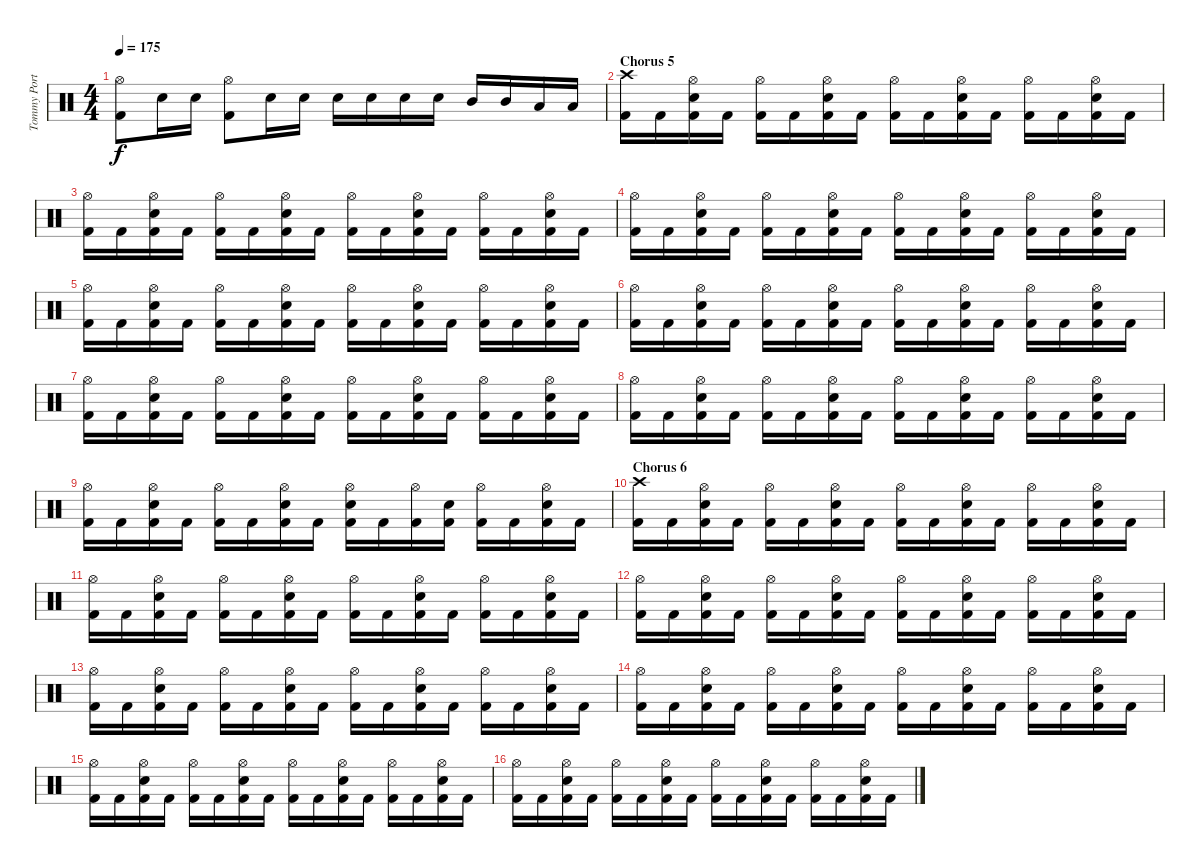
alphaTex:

\track ("Tommy Portimo" "Tommy Port") {instrument percussion}
\staff {score}
\articulation defaults
\ts (4 4)
\tempo 175
\clef neutral
\ks c
("Hi-Hat (open)" "Kick (hit) 2").8{dy f} "Snare (hit) 2".16 "Snare (hit) 2".16 ("Hi-Hat (open)" "Kick (hit) 2").8 "Snare (hit) 2".16 "Snare (hit) 2".16 "Snare (hit) 2".16 "Snare (hit) 2".16 "Snare (hit) 2".16 "Snare (hit) 2".16 "Mid Tom (hit)".16 "Mid Tom (hit)".16 "Low Tom (hit)".16 "Low Tom (hit)".16 |
\section ("" "Chorus 5")
("Crash high (hit)" "Kick (hit) 2").16 "Kick (hit) 2".16 ("Hi-Hat (open)" "Snare (hit) 2" "Kick (hit) 2").16 "Kick (hit) 2".16 ("Hi-Hat (open)" "Kick (hit) 2").16 "Kick (hit) 2".16 ("Hi-Hat (open)" "Snare (hit) 2" "Kick (hit) 2").16 "Kick (hit) 2".16 ("Hi-Hat (open)" "Kick (hit) 2").16 "Kick (hit) 2".16 ("Hi-Hat (open)" "Snare (hit) 2" "Kick (hit) 2").16 "Kick (hit) 2".16 ("Hi-Hat (open)" "Kick (hit) 2").16 "Kick (hit) 2".16 ("Hi-Hat (open)" "Snare (hit) 2" "Kick (hit) 2").16 "Kick (hit) 2".16 |
("Hi-Hat (open)" "Kick (hit) 2").16 "Kick (hit) 2".16 ("Hi-Hat (open)" "Snare (hit) 2" "Kick (hit) 2").16 "Kick (hit) 2".16 ("Hi-Hat (open)" "Kick (hit) 2").16 "Kick (hit) 2".16 ("Hi-Hat (open)" "Snare (hit) 2" "Kick (hit) 2").16 "Kick (hit) 2".16 ("Hi-Hat (open)" "Kick (hit) 2").16 "Kick (hit) 2".16 ("Hi-Hat (open)" "Snare (hit) 2" "Kick (hit) 2").16 "Kick (hit) 2".16 ("Hi-Hat (open)" "Kick (hit) 2").16 "Kick (hit) 2".16 ("Hi-Hat (open)" "Snare (hit) 2" "Kick (hit) 2").16 "Kick (hit) 2".16 |
("Hi-Hat (open)" "Kick (hit) 2").16 "Kick (hit) 2".16 ("Hi-Hat (open)" "Snare (hit) 2" "Kick (hit) 2").16 "Kick (hit) 2".16 ("Hi-Hat (open)" "Kick (hit) 2").16 "Kick (hit) 2".16 ("Hi-Hat (open)" "Snare (hit) 2" "Kick (hit) 2").16 "Kick (hit) 2".16 ("Hi-Hat (open)" "Kick (hit) 2").16 "Kick (hit) 2".16 ("Hi-Hat (open)" "Snare (hit) 2" "Kick (hit) 2").16 "Kick (hit) 2".16 ("Hi-Hat (open)" "Kick (hit) 2").16 "Kick (hit) 2".16 ("Hi-Hat (open)" "Snare (hit) 2" "Kick (hit) 2").16 "Kick (hit) 2".16 |
("Hi-Hat (open)" "Kick (hit) 2").16 "Kick (hit) 2".16 ("Hi-Hat (open)" "Snare (hit) 2" "Kick (hit) 2").16 "Kick (hit) 2".16 ("Hi-Hat (open)" "Kick (hit) 2").16 "Kick (hit) 2".16 ("Hi-Hat (open)" "Snare (hit) 2" "Kick (hit) 2").16 "Kick (hit) 2".16 ("Hi-Hat (open)" "Kick (hit) 2").16 "Kick (hit) 2".16 ("Hi-Hat (open)" "Snare (hit) 2" "Kick (hit) 2").16 "Kick (hit) 2".16 ("Hi-Hat (open)" "Kick (hit) 2").16 "Kick (hit) 2".16 ("Hi-Hat (open)" "Snare (hit) 2" "Kick (hit) 2").16 "Kick (hit) 2".16 |
("Hi-Hat (open)" "Kick (hit) 2").16 "Kick (hit) 2".16 ("Hi-Hat (open)" "Snare (hit) 2" "Kick (hit) 2").16 "Kick (hit) 2".16 ("Hi-Hat (open)" "Kick (hit) 2").16 "Kick (hit) 2".16 ("Hi-Hat (open)" "Snare (hit) 2" "Kick (hit) 2").16 "Kick (hit) 2".16 ("Hi-Hat (open)" "Kick (hit) 2").16 "Kick (hit) 2".16 ("Hi-Hat (open)" "Snare (hit) 2" "Kick (hit) 2").16 "Kick (hit) 2".16 ("Hi-Hat (open)" "Kick (hit) 2").16 "Kick (hit) 2".16 ("Hi-Hat (open)" "Snare (hit) 2" "Kick (hit) 2").16 "Kick (hit) 2".16 |
("Hi-Hat (open)" "Kick (hit) 2").16 "Kick (hit) 2".16 ("Hi-Hat (open)" "Snare (hit) 2" "Kick (hit) 2").16 "Kick (hit) 2".16 ("Hi-Hat (open)" "Kick (hit) 2").16 "Kick (hit) 2".16 ("Hi-Hat (open)" "Snare (hit) 2" "Kick (hit) 2").16 "Kick (hit) 2".16 ("Hi-Hat (open)" "Kick (hit) 2").16 "Kick (hit) 2".16 ("Hi-Hat (open)" "Snare (hit) 2" "Kick (hit) 2").16 "Kick (hit) 2".16 ("Hi-Hat (open)" "Kick (hit) 2").16 "Kick (hit) 2".16 ("Hi-Hat (open)" "Snare (hit) 2" "Kick (hit) 2").16 "Kick (hit) 2".16 |
("Hi-Hat (open)" "Kick (hit) 2").16 "Kick (hit) 2".16 ("Hi-Hat (open)" "Snare (hit) 2" "Kick (hit) 2").16 "Kick (hit) 2".16 ("Hi-Hat (open)" "Kick (hit) 2").16 "Kick (hit) 2".16 ("Hi-Hat (open)" "Snare (hit) 2" "Kick (hit) 2").16 "Kick (hit) 2".16 ("Hi-Hat (open)" "Kick (hit) 2").16 "Kick (hit) 2".16 ("Hi-Hat (open)" "Snare (hit) 2" "Kick (hit) 2").16 "Kick (hit) 2".16 ("Hi-Hat (open)" "Kick (hit) 2").16 "Kick (hit) 2".16 ("Hi-Hat (open)" "Snare (hit) 2" "Kick (hit) 2").16 "Kick (hit) 2".16 |
("Hi-Hat (open)" "Kick (hit) 2").16 "Kick (hit) 2".16 ("Hi-Hat (open)" "Snare (hit) 2" "Kick (hit) 2").16 "Kick (hit) 2".16 ("Hi-Hat (open)" "Kick (hit) 2").16 "Kick (hit) 2".16 ("Hi-Hat (open)" "Snare (hit) 2" "Kick (hit) 2").16 "Kick (hit) 2".16 ("Hi-Hat (open)" "Snare (hit) 2" "Kick (hit) 2").16 "Kick (hit) 2".16 ("Hi-Hat (open)" "Kick (hit) 2").16 ("Snare (hit) 2" "Kick (hit) 2").16 ("Hi-Hat (open)" "Kick (hit) 2").16 "Kick (hit) 2".16 ("Hi-Hat (open)" "Snare (hit) 2" "Kick (hit) 2").16 "Kick (hit) 2".16 |
\section ("" "Chorus 6")
("Crash high (hit)" "Kick (hit) 2").16 "Kick (hit) 2".16 ("Hi-Hat (open)" "Snare (hit) 2" "Kick (hit) 2").16 "Kick (hit) 2".16 ("Hi-Hat (open)" "Kick (hit) 2").16 "Kick (hit) 2".16 ("Hi-Hat (open)" "Snare (hit) 2" "Kick (hit) 2").16 "Kick (hit) 2".16 ("Hi-Hat (open)" "Kick (hit) 2").16 "Kick (hit) 2".16 ("Hi-Hat (open)" "Snare (hit) 2" "Kick (hit) 2").16 "Kick (hit) 2".16 ("Hi-Hat (open)" "Kick (hit) 2").16 "Kick (hit) 2".16 ("Hi-Hat (open)" "Snare (hit) 2" "Kick (hit) 2").16 "Kick (hit) 2".16 |
("Hi-Hat (open)" "Kick (hit) 2").16 "Kick (hit) 2".16 ("Hi-Hat (open)" "Snare (hit) 2" "Kick (hit) 2").16 "Kick (hit) 2".16 ("Hi-Hat (open)" "Kick (hit) 2").16 "Kick (hit) 2".16 ("Hi-Hat (open)" "Snare (hit) 2" "Kick (hit) 2").16 "Kick (hit) 2".16 ("Hi-Hat (open)" "Kick (hit) 2").16 "Kick (hit) 2".16 ("Hi-Hat (open)" "Snare (hit) 2" "Kick (hit) 2").16 "Kick (hit) 2".16 ("Hi-Hat (open)" "Kick (hit) 2").16 "Kick (hit) 2".16 ("Hi-Hat (open)" "Snare (hit) 2" "Kick (hit) 2").16 "Kick (hit) 2".16 |
("Hi-Hat (open)" "Kick (hit) 2").16 "Kick (hit) 2".16 ("Hi-Hat (open)" "Snare (hit) 2" "Kick (hit) 2").16 "Kick (hit) 2".16 ("Hi-Hat (open)" "Kick (hit) 2").16 "Kick (hit) 2".16 ("Hi-Hat (open)" "Snare (hit) 2" "Kick (hit) 2").16 "Kick (hit) 2".16 ("Hi-Hat (open)" "Kick (hit) 2").16 "Kick (hit) 2".16 ("Hi-Hat (open)" "Snare (hit) 2" "Kick (hit) 2").16 "Kick (hit) 2".16 ("Hi-Hat (open)" "Kick (hit) 2").16 "Kick (hit) 2".16 ("Hi-Hat (open)" "Snare (hit) 2" "Kick (hit) 2").16 "Kick (hit) 2".16 |
("Hi-Hat (open)" "Kick (hit) 2").16 "Kick (hit) 2".16 ("Hi-Hat (open)" "Snare (hit) 2" "Kick (hit) 2").16 "Kick (hit) 2".16 ("Hi-Hat (open)" "Kick (hit) 2").16 "Kick (hit) 2".16 ("Hi-Hat (open)" "Snare (hit) 2" "Kick (hit) 2").16 "Kick (hit) 2".16 ("Hi-Hat (open)" "Kick (hit) 2").16 "Kick (hit) 2".16 ("Hi-Hat (open)" "Snare (hit) 2" "Kick (hit) 2").16 "Kick (hit) 2".16 ("Hi-Hat (open)" "Kick (hit) 2").16 "Kick (hit) 2".16 ("Hi-Hat (open)" "Snare (hit) 2" "Kick (hit) 2").16 "Kick (hit) 2".16 |
("Hi-Hat (open)" "Kick (hit) 2").16 "Kick (hit) 2".16 ("Hi-Hat (open)" "Snare (hit) 2" "Kick (hit) 2").16 "Kick (hit) 2".16 ("Hi-Hat (open)" "Kick (hit) 2").16 "Kick (hit) 2".16 ("Hi-Hat (open)" "Snare (hit) 2" "Kick (hit) 2").16 "Kick (hit) 2".16 ("Hi-Hat (open)" "Kick (hit) 2").16 "Kick (hit) 2".16 ("Hi-Hat (open)" "Snare (hit) 2" "Kick (hit) 2").16 "Kick (hit) 2".16 ("Hi-Hat (open)" "Kick (hit) 2").16 "Kick (hit) 2".16 ("Hi-Hat (open)" "Snare (hit) 2" "Kick (hit) 2").16 "Kick (hit) 2".16 |
("Hi-Hat (open)" "Kick (hit) 2").16 "Kick (hit) 2".16 ("Hi-Hat (open)" "Snare (hit) 2" "Kick (hit) 2").16 "Kick (hit) 2".16 ("Hi-Hat (open)" "Kick (hit) 2").16 "Kick (hit) 2".16 ("Hi-Hat (open)" "Snare (hit) 2" "Kick (hit) 2").16 "Kick (hit) 2".16 ("Hi-Hat (open)" "Kick (hit) 2").16 "Kick (hit) 2".16 ("Hi-Hat (open)" "Snare (hit) 2" "Kick (hit) 2").16 "Kick (hit) 2".16 ("Hi-Hat (open)" "Kick (hit) 2").16 "Kick (hit) 2".16 ("Hi-Hat (open)" "Snare (hit) 2" "Kick (hit) 2").16 "Kick (hit) 2".16 |
("Hi-Hat (open)" "Kick (hit) 2").16 "Kick (hit) 2".16 ("Hi-Hat (open)" "Snare (hit) 2" "Kick (hit) 2").16 "Kick (hit) 2".16 ("Hi-Hat (open)" "Kick (hit) 2").16 "Kick (hit) 2".16 ("Hi-Hat (open)" "Snare (hit) 2" "Kick (hit) 2").16 "Kick (hit) 2".16 ("Hi-Hat (open)" "Kick (hit) 2").16 "Kick (hit) 2".16 ("Hi-Hat (open)" "Snare (hit) 2" "Kick (hit) 2").16 "Kick (hit) 2".16 ("Hi-Hat (open)" "Kick (hit) 2").16 "Kick (hit) 2".16 ("Hi-Hat (open)" "Snare (hit) 2" "Kick (hit) 2").16 "Kick (hit) 2".16
